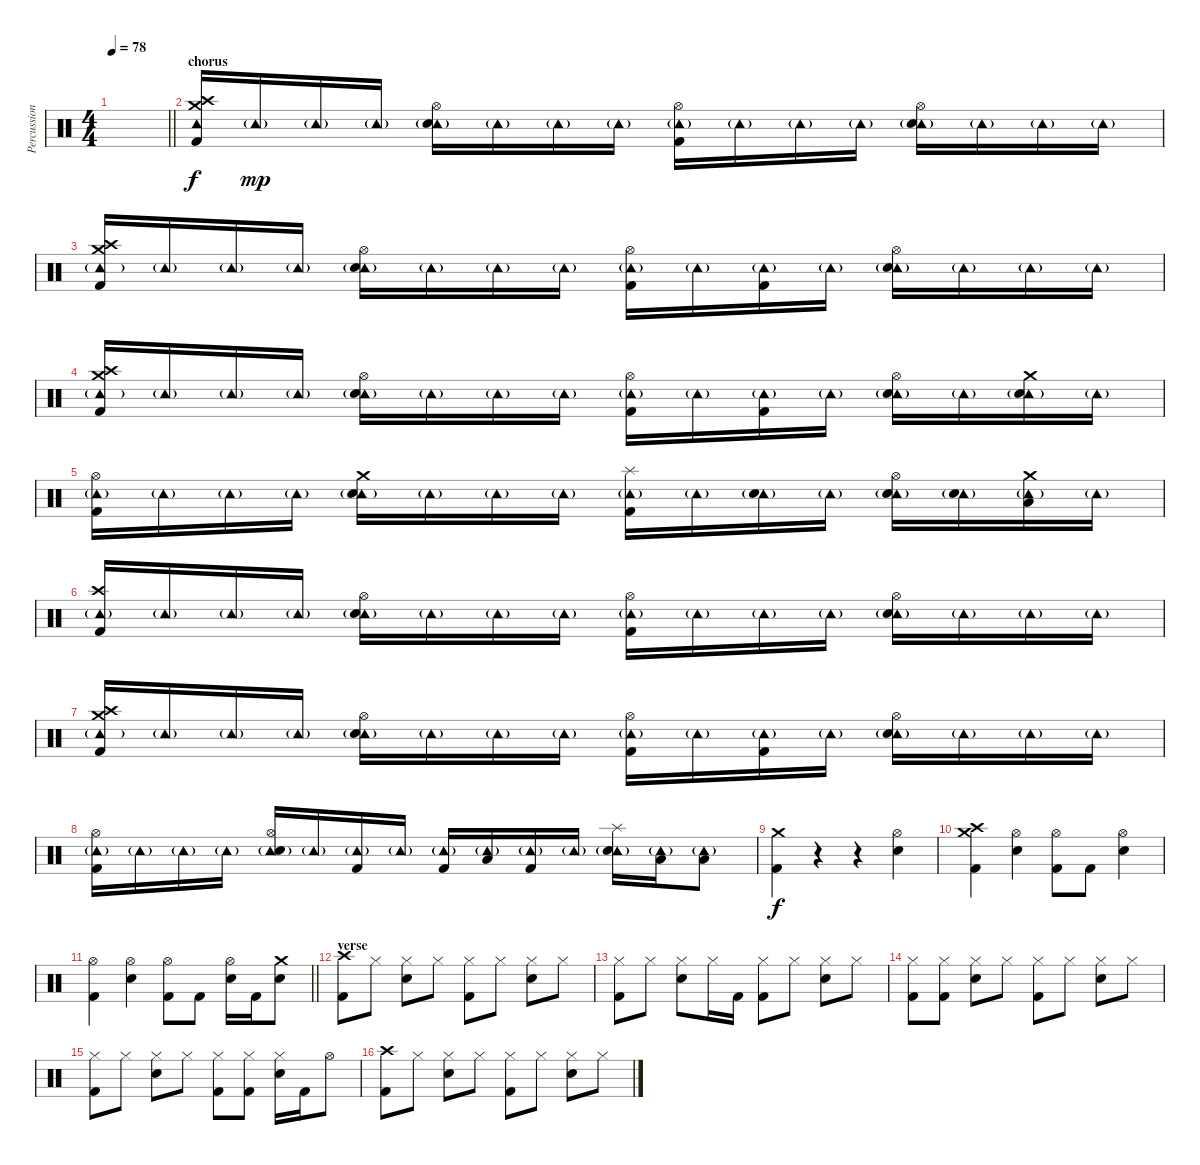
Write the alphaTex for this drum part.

\track ("Percussion" "Percussion") {instrument percussion}
\staff {score}
\articulation defaults
\ts (4 4)
\tempo 78
\clef neutral
\barLineRight lightlight
\ks c
|
\section ("" "chorus")
("Tambourine (hit)" "Crash high (hit)" "Crash medium (hit)" "Kick (hit) 2").16 "Tambourine (hit)"{g}.16{dy mp} "Tambourine (hit)"{g}.16 "Tambourine (hit)"{g}.16 ("Tambourine (hit)"{g} "Hi-Hat (open)" "Electric Snare (hit)").16 "Tambourine (hit)"{g}.16 "Tambourine (hit)"{g}.16 "Tambourine (hit)"{g}.16 ("Tambourine (hit)"{g} "Hi-Hat (open)" "Kick (hit) 2").16 "Tambourine (hit)"{g}.16 "Tambourine (hit)"{g}.16 "Tambourine (hit)"{g}.16 ("Tambourine (hit)"{g} "Hi-Hat (open)" "Electric Snare (hit)").16 "Tambourine (hit)"{g}.16 "Tambourine (hit)"{g}.16 "Tambourine (hit)"{g}.16 |
("Tambourine (hit)"{g} "Crash high (hit)" "Crash medium (hit)" "Kick (hit) 2").16 "Tambourine (hit)"{g}.16 "Tambourine (hit)"{g}.16 "Tambourine (hit)"{g}.16 ("Tambourine (hit)"{g} "Hi-Hat (open)" "Electric Snare (hit)").16 "Tambourine (hit)"{g}.16 "Tambourine (hit)"{g}.16 "Tambourine (hit)"{g}.16 ("Tambourine (hit)"{g} "Hi-Hat (open)" "Kick (hit) 2").16 "Tambourine (hit)"{g}.16 ("Tambourine (hit)"{g} "Kick (hit) 2").16 "Tambourine (hit)"{g}.16 ("Tambourine (hit)"{g} "Hi-Hat (open)" "Electric Snare (hit)").16 "Tambourine (hit)"{g}.16 "Tambourine (hit)"{g}.16 "Tambourine (hit)"{g}.16 |
("Tambourine (hit)"{g} "Crash high (hit)" "Crash medium (hit)" "Kick (hit) 2").16 "Tambourine (hit)"{g}.16 "Tambourine (hit)"{g}.16 "Tambourine (hit)"{g}.16 ("Tambourine (hit)"{g} "Hi-Hat (open)" "Electric Snare (hit)").16 "Tambourine (hit)"{g}.16 "Tambourine (hit)"{g}.16 "Tambourine (hit)"{g}.16 ("Tambourine (hit)"{g} "Hi-Hat (open)" "Kick (hit) 2").16 "Tambourine (hit)"{g}.16 ("Tambourine (hit)"{g} "Kick (hit) 2").16 "Tambourine (hit)"{g}.16 ("Tambourine (hit)"{g} "Hi-Hat (open)" "Electric Snare (hit)").16 "Tambourine (hit)"{g}.16 ("Tambourine (hit)"{g} "Crash medium (hit)" "Electric Snare (hit)").16 "Tambourine (hit)"{g}.16 |
("Tambourine (hit)"{g} "Hi-Hat (open)" "Kick (hit) 2").16 "Tambourine (hit)"{g}.16 "Tambourine (hit)"{g}.16 "Tambourine (hit)"{g}.16 ("Tambourine (hit)"{g} "Crash medium (hit)" "Electric Snare (hit)").16 "Tambourine (hit)"{g}.16 "Tambourine (hit)"{g}.16 "Tambourine (hit)"{g}.16 ("Tambourine (hit)"{g} "Splash (hit)" "Kick (hit) 2").16 "Tambourine (hit)"{g}.16 ("Tambourine (hit)"{g} "Electric Snare (hit)").16 "Tambourine (hit)"{g}.16 ("Tambourine (hit)"{g} "Hi-Hat (open)" "Electric Snare (hit)").16 ("Tambourine (hit)"{g} "Electric Snare (hit)").16 ("Tambourine (hit)"{g} "Crash medium (hit)" "Low Tom (hit)").16 "Tambourine (hit)"{g}.16 |
("Tambourine (hit)"{g} "Crash high (hit)" "Kick (hit) 2").16 "Tambourine (hit)"{g}.16 "Tambourine (hit)"{g}.16 "Tambourine (hit)"{g}.16 ("Tambourine (hit)"{g} "Hi-Hat (open)" "Electric Snare (hit)").16 "Tambourine (hit)"{g}.16 "Tambourine (hit)"{g}.16 "Tambourine (hit)"{g}.16 ("Tambourine (hit)"{g} "Hi-Hat (open)" "Kick (hit) 2").16 "Tambourine (hit)"{g}.16 "Tambourine (hit)"{g}.16 "Tambourine (hit)"{g}.16 ("Tambourine (hit)"{g} "Hi-Hat (open)" "Electric Snare (hit)").16 "Tambourine (hit)"{g}.16 "Tambourine (hit)"{g}.16 "Tambourine (hit)"{g}.16 |
("Tambourine (hit)"{g} "Crash high (hit)" "Crash medium (hit)" "Kick (hit) 2").16 "Tambourine (hit)"{g}.16 "Tambourine (hit)"{g}.16 "Tambourine (hit)"{g}.16 ("Tambourine (hit)"{g} "Hi-Hat (open)" "Electric Snare (hit)").16 "Tambourine (hit)"{g}.16 "Tambourine (hit)"{g}.16 "Tambourine (hit)"{g}.16 ("Tambourine (hit)"{g} "Hi-Hat (open)" "Kick (hit) 2").16 "Tambourine (hit)"{g}.16 ("Tambourine (hit)"{g} "Kick (hit) 2").16 "Tambourine (hit)"{g}.16 ("Tambourine (hit)"{g} "Hi-Hat (open)" "Electric Snare (hit)").16 "Tambourine (hit)"{g}.16 "Tambourine (hit)"{g}.16 "Tambourine (hit)"{g}.16 |
("Tambourine (hit)"{g} "Hi-Hat (open)" "Kick (hit) 2").16 "Tambourine (hit)"{g}.16 "Tambourine (hit)"{g}.16 "Tambourine (hit)"{g}.16 ("Tambourine (hit)"{g} "Hi-Hat (open)" "Electric Snare (hit)").16 "Tambourine (hit)"{g}.16 ("Tambourine (hit)"{g} "Kick (hit) 2").16 "Tambourine (hit)"{g}.16 ("Tambourine (hit)"{g} "Kick (hit) 2").16 ("Tambourine (hit)"{g} "Low Tom (hit)").16 ("Tambourine (hit)"{g} "Kick (hit) 2").16 "Tambourine (hit)"{g}.16 ("Tambourine (hit)"{g} "Splash (hit)" "Electric Snare (hit)").16 ("Tambourine (hit)"{g} "Low Tom (hit)").16 ("Tambourine (hit)"{g} "Low Tom (hit)").8 |
("Kick (hit) 2" "Crash medium (hit)").4{dy f} r.4 r.4 ("Electric Snare (hit)" "Hi-Hat (open)").4 |
("Crash high (hit)" "Crash medium (hit)" "Kick (hit) 2").4 ("Hi-Hat (open)" "Electric Snare (hit)").4 ("Hi-Hat (open)" "Kick (hit) 2").8 "Kick (hit) 2".8 ("Hi-Hat (open)" "Electric Snare (hit)").4 |
\barLineRight lightlight
("Hi-Hat (open)" "Kick (hit) 2").4 ("Hi-Hat (open)" "Electric Snare (hit)").4 ("Hi-Hat (open)" "Kick (hit) 2").8 "Kick (hit) 2".8 ("Hi-Hat (open)" "Electric Snare (hit)").16 "Kick (hit) 2".16 ("Electric Snare (hit)" "Crash medium (hit)").8 |
\section ("" "verse")
("Crash high (hit)" "Kick (hit) 2").8 "Hi-Hat (closed)".8 ("Hi-Hat (closed)" "Electric Snare (hit)").8 "Hi-Hat (closed)".8 ("Hi-Hat (closed)" "Kick (hit) 2").8 "Hi-Hat (closed)".8 ("Hi-Hat (closed)" "Electric Snare (hit)").8 "Hi-Hat (closed)".8 |
("Hi-Hat (closed)" "Kick (hit) 2").8 "Hi-Hat (closed)".8 ("Hi-Hat (closed)" "Electric Snare (hit)").8 "Hi-Hat (closed)".16 "Kick (hit) 2".16 ("Hi-Hat (closed)" "Kick (hit) 2").8 "Hi-Hat (closed)".8 ("Hi-Hat (closed)" "Electric Snare (hit)").8 "Hi-Hat (closed)".8 |
("Hi-Hat (closed)" "Kick (hit) 2").8 ("Hi-Hat (closed)" "Kick (hit) 2").8 ("Hi-Hat (closed)" "Electric Snare (hit)").8 "Hi-Hat (closed)".8 ("Hi-Hat (closed)" "Kick (hit) 2").8 "Hi-Hat (closed)".8 ("Hi-Hat (closed)" "Electric Snare (hit)").8 "Hi-Hat (closed)".8 |
("Hi-Hat (closed)" "Kick (hit) 2").8 "Hi-Hat (closed)".8 ("Hi-Hat (closed)" "Electric Snare (hit)").8 "Hi-Hat (closed)".8 ("Hi-Hat (closed)" "Kick (hit) 2").8 ("Hi-Hat (closed)" "Kick (hit) 2").8 ("Hi-Hat (closed)" "Electric Snare (hit)").16 "Kick (hit) 2".16 "Hi-Hat (open)".8 |
("Crash high (hit)" "Kick (hit) 2").8 "Hi-Hat (closed)".8 ("Hi-Hat (closed)" "Electric Snare (hit)").8 "Hi-Hat (closed)".8 ("Hi-Hat (closed)" "Kick (hit) 2").8 "Hi-Hat (closed)".8 ("Hi-Hat (closed)" "Electric Snare (hit)").8 "Hi-Hat (closed)".8
